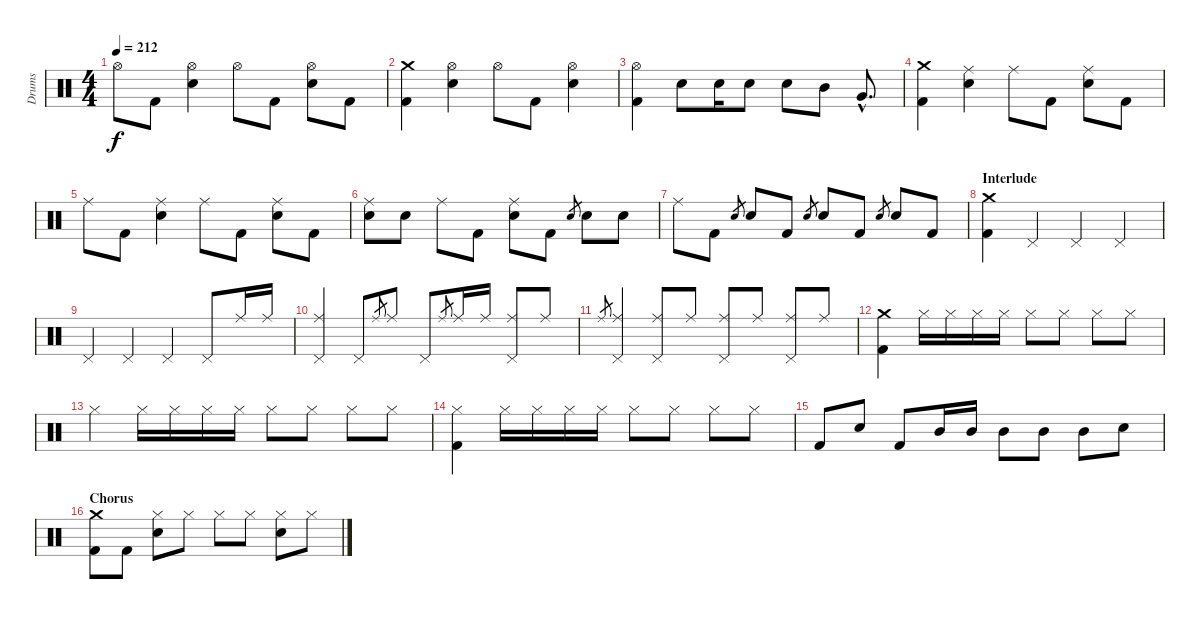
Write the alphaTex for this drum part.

\track ("Drums" "Drums") {instrument percussion}
\staff {score}
\articulation defaults
\ts (4 4)
\tempo 212
\clef neutral
\ks c "Hi-Hat (open)".8{dy f} "Kick (hit) 2".8
("Hi-Hat (open)" "Electric Snare (hit)").4 "Hi-Hat (open)".8 "Kick (hit) 2".8 ("Hi-Hat (open)" "Electric Snare (hit)").8 "Kick (hit) 2".8 |
("Crash medium (hit)" "Kick (hit) 2").4 ("Hi-Hat (open)" "Electric Snare (hit)").4 "Hi-Hat (open)".8 "Kick (hit) 2".8 ("Hi-Hat (open)" "Electric Snare (hit)").4 |
("Hi-Hat (open)" "Kick (hit) 2").4 "Electric Snare (hit)".8 "Electric Snare (hit)".16 "Electric Snare (hit)".8 "Electric Snare (hit)".8 "Mid Tom (hit)".8 "Very Low Tom (hit)"{hac}.8{d} |
("Crash medium (hit)" "Kick (hit) 2").4 ("Ride (middle)" "Electric Snare (hit)").4 "Ride (middle)".8 "Kick (hit) 2".8 ("Ride (middle)" "Electric Snare (hit)").8 "Kick (hit) 2".8 |
"Ride (middle)".8 "Kick (hit) 2".8 ("Ride (middle)" "Electric Snare (hit)").4 "Ride (middle)".8 "Kick (hit) 2".8 ("Ride (middle)" "Electric Snare (hit)").8 "Kick (hit) 2".8 |
("Ride (middle)" "Electric Snare (hit)").8 "Electric Snare (hit)".8 "Ride (middle)".8 "Kick (hit) 2".8 ("Ride (middle)" "Electric Snare (hit)").8 "Kick (hit) 2".8 "Electric Snare (hit)".8{gr} "Electric Snare (hit)".8 "Electric Snare (hit)".8 |
"Ride (middle)".8 "Kick (hit) 2".8 "Electric Snare (hit)".8{gr} "Electric Snare (hit)".8 "Kick (hit) 2".8 "Electric Snare (hit)".8{gr} "Electric Snare (hit)".8 "Kick (hit) 2".8 "Electric Snare (hit)".8{gr} "Electric Snare (hit)".8 "Kick (hit) 2".8 |
\section ("" "Interlude")
("Crash medium (hit)" "Kick (hit) 2").4 "Pedal Hi-Hat (hit)".4 "Pedal Hi-Hat (hit)".4 "Pedal Hi-Hat (hit)".4 |
"Pedal Hi-Hat (hit)".4 "Pedal Hi-Hat (hit)".4 "Pedal Hi-Hat (hit)".4 "Pedal Hi-Hat (hit)".8 "Ride (middle)".16 "Ride (middle)".16 |
("Ride (middle)" "Pedal Hi-Hat (hit)").4 "Pedal Hi-Hat (hit)".8 "Ride (middle)".8{gr} "Ride (middle)".8 "Pedal Hi-Hat (hit)".8 "Ride (middle)".8{gr} "Ride (middle)".16 "Ride (middle)".16 ("Ride (middle)" "Pedal Hi-Hat (hit)").8 "Ride (middle)".8 |
"Ride (middle)".8{gr} ("Ride (middle)" "Pedal Hi-Hat (hit)").4 ("Ride (middle)" "Pedal Hi-Hat (hit)").8 "Ride (middle)".8 ("Ride (middle)" "Pedal Hi-Hat (hit)").8 "Ride (middle)".8 ("Ride (middle)" "Pedal Hi-Hat (hit)").8 "Ride (middle)".8 |
("Crash medium (hit)" "Kick (hit) 2").4 "Hi-Hat (closed)".16 "Hi-Hat (closed)".16 "Hi-Hat (closed)".16 "Hi-Hat (closed)".16 "Hi-Hat (closed)".8 "Hi-Hat (closed)".8 "Hi-Hat (closed)".8 "Hi-Hat (closed)".8 |
"Hi-Hat (closed)".4 "Hi-Hat (closed)".16 "Hi-Hat (closed)".16 "Hi-Hat (closed)".16 "Hi-Hat (closed)".16 "Hi-Hat (closed)".8 "Hi-Hat (closed)".8 "Hi-Hat (closed)".8 "Hi-Hat (closed)".8 |
("Hi-Hat (closed)" "Kick (hit) 2").4 "Hi-Hat (closed)".16 "Hi-Hat (closed)".16 "Hi-Hat (closed)".16 "Hi-Hat (closed)".16 "Hi-Hat (closed)".8 "Hi-Hat (closed)".8 "Hi-Hat (closed)".8 "Hi-Hat (closed)".8 |
"Kick (hit) 2".8 "Electric Snare (hit)".8 "Kick (hit) 2".8 "Mid Tom (hit)".16 "Mid Tom (hit)".16 "Mid Tom (hit)".8 "Mid Tom (hit)".8 "Mid Tom (hit)".8 "Electric Snare (hit)".8 |
\section ("" "Chorus")
("Crash medium (hit)" "Kick (hit) 2").8 "Kick (hit) 2".8 ("Hi-Hat (closed)" "Electric Snare (hit)").8 "Hi-Hat (closed)".8 "Hi-Hat (closed)".8 "Hi-Hat (closed)".8 ("Hi-Hat (closed)" "Electric Snare (hit)").8 "Hi-Hat (closed)".8
